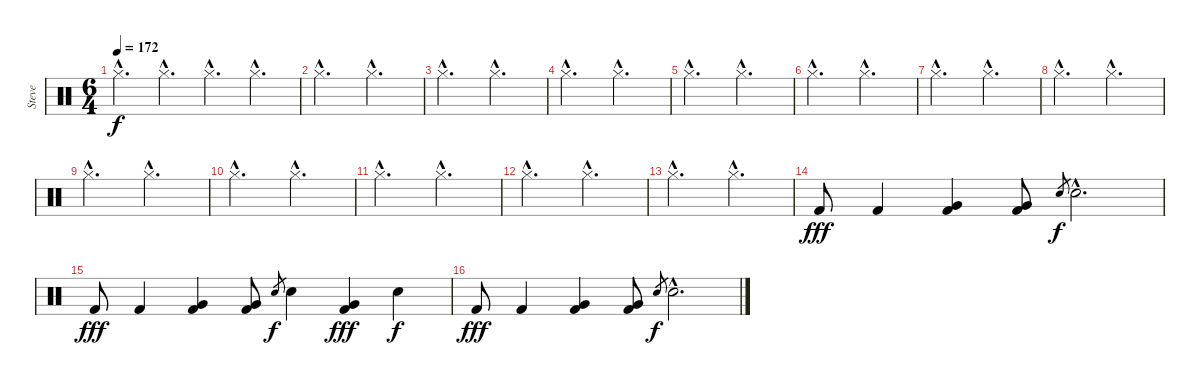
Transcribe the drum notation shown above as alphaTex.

\track ("Steve" "Steve") {instrument percussion}
\staff {score}
\articulation defaults
\ts (6 4)
\tempo 172
\clef neutral
\ks c "Hi-Hat (closed)"{hac}.4{d dy f} "Hi-Hat (closed)"{hac}.4{d} "Hi-Hat (closed)"{hac}.4{d} "Hi-Hat (closed)"{hac}.4{d}
|
"Hi-Hat (closed)"{hac}.2{d} "Hi-Hat (closed)"{hac}.2{d} |
"Hi-Hat (closed)"{hac}.2{d} "Hi-Hat (closed)"{hac}.2{d} |
"Hi-Hat (closed)"{hac}.2{d} "Hi-Hat (closed)"{hac}.2{d} |
"Hi-Hat (closed)"{hac}.2{d} "Hi-Hat (closed)"{hac}.2{d} |
"Hi-Hat (closed)"{hac}.2{d} "Hi-Hat (closed)"{hac}.2{d} |
"Hi-Hat (closed)"{hac}.2{d} "Hi-Hat (closed)"{hac}.2{d} |
"Hi-Hat (closed)"{hac}.2{d} "Hi-Hat (closed)"{hac}.2{d} |
"Hi-Hat (closed)"{hac}.2{d} "Hi-Hat (closed)"{hac}.2{d} |
"Hi-Hat (closed)"{hac}.2{d} "Hi-Hat (closed)"{hac}.2{d} |
"Hi-Hat (closed)"{hac}.2{d} "Hi-Hat (closed)"{hac}.2{d} |
"Hi-Hat (closed)"{hac}.2{d} "Hi-Hat (closed)"{hac}.2{d} |
"Hi-Hat (closed)"{hac}.2{d} "Hi-Hat (closed)"{hac}.2{d} |
"Kick (hit) 2".8{dy fff} "Kick (hit) 2".4 ("Very Low Tom (hit)" "Kick (hit) 2").4 ("Very Low Tom (hit)" "Kick (hit) 2").8 "Electric Snare (hit)".8{gr dy f} "Electric Snare (hit)"{hac}.2{d} |
"Kick (hit) 2".8{dy fff} "Kick (hit) 2".4 ("Very Low Tom (hit)" "Kick (hit) 2").4 ("Very Low Tom (hit)" "Kick (hit) 2").8 "Electric Snare (hit)".8{gr dy f} "Electric Snare (hit)".4 ("Very Low Tom (hit)" "Kick (hit) 2").4{dy fff} "Electric Snare (hit)".4{dy f} |
"Kick (hit) 2".8{dy fff} "Kick (hit) 2".4 ("Very Low Tom (hit)" "Kick (hit) 2").4 ("Very Low Tom (hit)" "Kick (hit) 2").8 "Electric Snare (hit)".8{gr dy f} "Electric Snare (hit)"{hac}.2{d}
